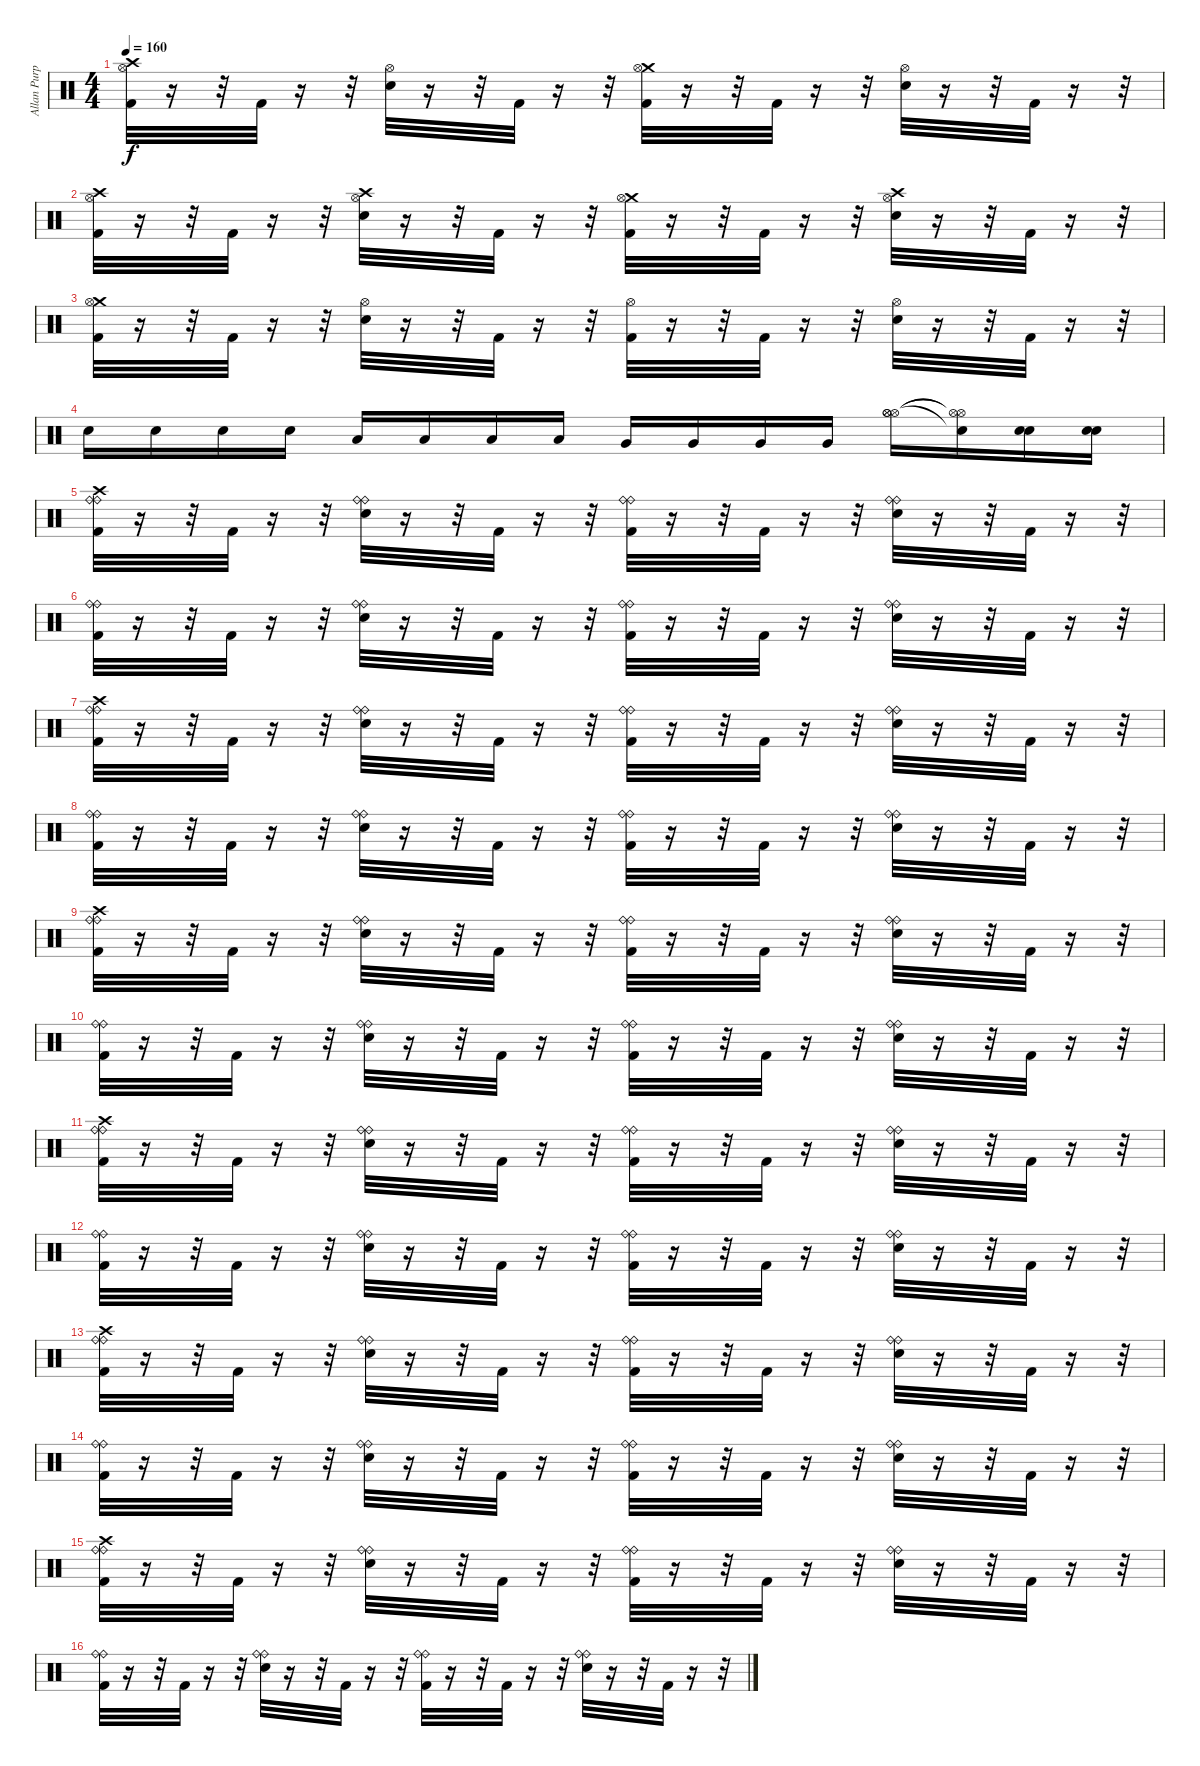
\track ("Allan Purple" "Allan Purp") {instrument percussion}
\staff {score}
\articulation defaults
\ts (4 4)
\tempo 160
\clef neutral
\ks c
("Crash high (hit)" "Hi-Hat (open)" "Kick (hit) 2").32{dy f} r.16 r.32 "Kick (hit) 2".32 r.16 r.32 ("Hi-Hat (open)" "Electric Snare (hit)").32 r.16 r.32 "Kick (hit) 2".32 r.16 r.32 ("Crash medium (hit)" "Hi-Hat (open)" "Kick (hit) 2").32 r.16 r.32 "Kick (hit) 2".32 r.16 r.32 ("Hi-Hat (open)" "Electric Snare (hit)").32 r.16 r.32 "Kick (hit) 2".32 r.16 r.32 |
("Crash high (hit)" "Hi-Hat (open)" "Kick (hit) 2").32 r.16 r.32 "Kick (hit) 2".32 r.16 r.32 ("Crash high (hit)" "Hi-Hat (open)" "Electric Snare (hit)").32 r.16 r.32 "Kick (hit) 2".32 r.16 r.32 ("Crash medium (hit)" "Hi-Hat (open)" "Kick (hit) 2").32 r.16 r.32 "Kick (hit) 2".32 r.16 r.32 ("Crash high (hit)" "Hi-Hat (open)" "Electric Snare (hit)").32 r.16 r.32 "Kick (hit) 2".32 r.16 r.32 |
("Crash medium (hit)" "Hi-Hat (open)" "Kick (hit) 2").32 r.16 r.32 "Kick (hit) 2".32 r.16 r.32 ("Hi-Hat (open)" "Electric Snare (hit)").32 r.16 r.32 "Kick (hit) 2".32 r.16 r.32 ("Hi-Hat (open)" "Kick (hit) 2").32 r.16 r.32 "Kick (hit) 2".32 r.16 r.32 ("Hi-Hat (open)" "Electric Snare (hit)").32 r.16 r.32 "Kick (hit) 2".32 r.16 r.32 |
"Electric Snare (hit)".16 "Electric Snare (hit)".16 "Electric Snare (hit)".16 "Electric Snare (hit)".16 "Low Tom (hit)".16 "Low Tom (hit)".16 "Low Tom (hit)".16 "Low Tom (hit)".16 "Very Low Tom (hit)".16 "Very Low Tom (hit)".16 "Very Low Tom (hit)".16 "Very Low Tom (hit)".16 ("Hi-Hat (open)" "Hi-Hat (open)" "Hi-Hat (open)").16 ("Snare (hit)"{t} "Hi-Hat (open)"{t} "Hi-Hat (open)"{t}).16 ("Electric Snare (hit)" "Electric Snare (hit)").16 ("Electric Snare (hit)" "Electric Snare (hit)").16 |
("Crash high (hit)" "Ride (bell)" "Ride (bell)" "Kick (hit) 2").32 r.16 r.32 "Kick (hit) 2".32 r.16 r.32 ("Ride (bell)" "Ride (bell)" "Electric Snare (hit)").32 r.16 r.32 "Kick (hit) 2".32 r.16 r.32 ("Ride (bell)" "Ride (bell)" "Kick (hit) 2").32 r.16 r.32 "Kick (hit) 2".32 r.16 r.32 ("Ride (bell)" "Ride (bell)" "Electric Snare (hit)").32 r.16 r.32 "Kick (hit) 2".32 r.16 r.32 |
("Ride (bell)" "Ride (bell)" "Kick (hit) 2").32 r.16 r.32 "Kick (hit) 2".32 r.16 r.32 ("Ride (bell)" "Ride (bell)" "Electric Snare (hit)").32 r.16 r.32 "Kick (hit) 2".32 r.16 r.32 ("Ride (bell)" "Ride (bell)" "Kick (hit) 2").32 r.16 r.32 "Kick (hit) 2".32 r.16 r.32 ("Ride (bell)" "Ride (bell)" "Electric Snare (hit)").32 r.16 r.32 "Kick (hit) 2".32 r.16 r.32 |
("Crash high (hit)" "Ride (bell)" "Ride (bell)" "Kick (hit) 2").32 r.16 r.32 "Kick (hit) 2".32 r.16 r.32 ("Ride (bell)" "Ride (bell)" "Electric Snare (hit)").32 r.16 r.32 "Kick (hit) 2".32 r.16 r.32 ("Ride (bell)" "Ride (bell)" "Kick (hit) 2").32 r.16 r.32 "Kick (hit) 2".32 r.16 r.32 ("Ride (bell)" "Ride (bell)" "Electric Snare (hit)").32 r.16 r.32 "Kick (hit) 2".32 r.16 r.32 |
("Ride (bell)" "Ride (bell)" "Kick (hit) 2").32 r.16 r.32 "Kick (hit) 2".32 r.16 r.32 ("Ride (bell)" "Ride (bell)" "Electric Snare (hit)").32 r.16 r.32 "Kick (hit) 2".32 r.16 r.32 ("Ride (bell)" "Ride (bell)" "Kick (hit) 2").32 r.16 r.32 "Kick (hit) 2".32 r.16 r.32 ("Ride (bell)" "Ride (bell)" "Electric Snare (hit)").32 r.16 r.32 "Kick (hit) 2".32 r.16 r.32 |
("Crash high (hit)" "Ride (bell)" "Ride (bell)" "Kick (hit) 2").32 r.16 r.32 "Kick (hit) 2".32 r.16 r.32 ("Ride (bell)" "Ride (bell)" "Electric Snare (hit)").32 r.16 r.32 "Kick (hit) 2".32 r.16 r.32 ("Ride (bell)" "Ride (bell)" "Kick (hit) 2").32 r.16 r.32 "Kick (hit) 2".32 r.16 r.32 ("Ride (bell)" "Ride (bell)" "Electric Snare (hit)").32 r.16 r.32 "Kick (hit) 2".32 r.16 r.32 |
("Ride (bell)" "Ride (bell)" "Kick (hit) 2").32 r.16 r.32 "Kick (hit) 2".32 r.16 r.32 ("Ride (bell)" "Ride (bell)" "Electric Snare (hit)").32 r.16 r.32 "Kick (hit) 2".32 r.16 r.32 ("Ride (bell)" "Ride (bell)" "Kick (hit) 2").32 r.16 r.32 "Kick (hit) 2".32 r.16 r.32 ("Ride (bell)" "Ride (bell)" "Electric Snare (hit)").32 r.16 r.32 "Kick (hit) 2".32 r.16 r.32 |
("Crash high (hit)" "Ride (bell)" "Ride (bell)" "Kick (hit) 2").32 r.16 r.32 "Kick (hit) 2".32 r.16 r.32 ("Ride (bell)" "Ride (bell)" "Electric Snare (hit)").32 r.16 r.32 "Kick (hit) 2".32 r.16 r.32 ("Ride (bell)" "Ride (bell)" "Kick (hit) 2").32 r.16 r.32 "Kick (hit) 2".32 r.16 r.32 ("Ride (bell)" "Ride (bell)" "Electric Snare (hit)").32 r.16 r.32 "Kick (hit) 2".32 r.16 r.32 |
("Ride (bell)" "Ride (bell)" "Kick (hit) 2").32 r.16 r.32 "Kick (hit) 2".32 r.16 r.32 ("Ride (bell)" "Ride (bell)" "Electric Snare (hit)").32 r.16 r.32 "Kick (hit) 2".32 r.16 r.32 ("Ride (bell)" "Ride (bell)" "Kick (hit) 2").32 r.16 r.32 "Kick (hit) 2".32 r.16 r.32 ("Ride (bell)" "Ride (bell)" "Electric Snare (hit)").32 r.16 r.32 "Kick (hit) 2".32 r.16 r.32 |
("Crash high (hit)" "Ride (bell)" "Ride (bell)" "Kick (hit) 2").32 r.16 r.32 "Kick (hit) 2".32 r.16 r.32 ("Ride (bell)" "Ride (bell)" "Electric Snare (hit)").32 r.16 r.32 "Kick (hit) 2".32 r.16 r.32 ("Ride (bell)" "Ride (bell)" "Kick (hit) 2").32 r.16 r.32 "Kick (hit) 2".32 r.16 r.32 ("Ride (bell)" "Ride (bell)" "Electric Snare (hit)").32 r.16 r.32 "Kick (hit) 2".32 r.16 r.32 |
("Ride (bell)" "Ride (bell)" "Kick (hit) 2").32 r.16 r.32 "Kick (hit) 2".32 r.16 r.32 ("Ride (bell)" "Ride (bell)" "Electric Snare (hit)").32 r.16 r.32 "Kick (hit) 2".32 r.16 r.32 ("Ride (bell)" "Ride (bell)" "Kick (hit) 2").32 r.16 r.32 "Kick (hit) 2".32 r.16 r.32 ("Ride (bell)" "Ride (bell)" "Electric Snare (hit)").32 r.16 r.32 "Kick (hit) 2".32 r.16 r.32 |
("Crash high (hit)" "Ride (bell)" "Ride (bell)" "Kick (hit) 2").32 r.16 r.32 "Kick (hit) 2".32 r.16 r.32 ("Ride (bell)" "Ride (bell)" "Electric Snare (hit)").32 r.16 r.32 "Kick (hit) 2".32 r.16 r.32 ("Ride (bell)" "Ride (bell)" "Kick (hit) 2").32 r.16 r.32 "Kick (hit) 2".32 r.16 r.32 ("Ride (bell)" "Ride (bell)" "Electric Snare (hit)").32 r.16 r.32 "Kick (hit) 2".32 r.16 r.32 |
("Ride (bell)" "Ride (bell)" "Kick (hit) 2").32 r.16 r.32 "Kick (hit) 2".32 r.16 r.32 ("Ride (bell)" "Ride (bell)" "Electric Snare (hit)").32 r.16 r.32 "Kick (hit) 2".32 r.16 r.32 ("Ride (bell)" "Ride (bell)" "Kick (hit) 2").32 r.16 r.32 "Kick (hit) 2".32 r.16 r.32 ("Ride (bell)" "Ride (bell)" "Electric Snare (hit)").32 r.16 r.32 "Kick (hit) 2".32 r.16 r.32
